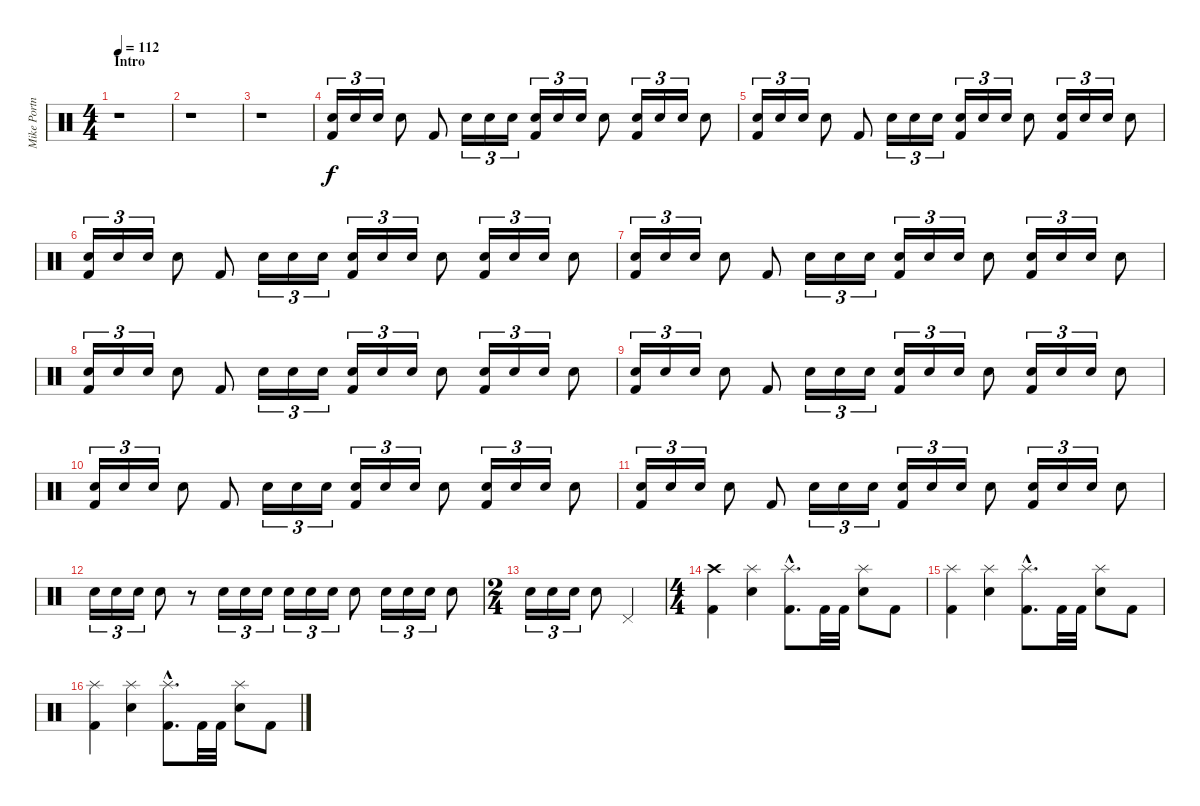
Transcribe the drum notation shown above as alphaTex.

\track ("Mike Portnoy" "Mike Portn") {instrument percussion}
\staff {score}
\articulation defaults
\ts (4 4)
\section ("" "Intro")
\tempo 112
\clef neutral
\ks c
r.1{dy f} |
r.1 |
r.1 |
("Kick (hit) 2" "Electric Snare (hit)").16{tu (3 2)} "Electric Snare (hit)".16{tu (3 2)} "Electric Snare (hit)".16{tu (3 2)} "Electric Snare (hit)".8 "Kick (hit) 2".8 "Electric Snare (hit)".16{tu (3 2)} "Electric Snare (hit)".16{tu (3 2)} "Electric Snare (hit)".16{tu (3 2)} ("Kick (hit) 2" "Electric Snare (hit)").16{tu (3 2)} "Electric Snare (hit)".16{tu (3 2)} "Electric Snare (hit)".16{tu (3 2)} "Electric Snare (hit)".8 ("Kick (hit) 2" "Electric Snare (hit)").16{tu (3 2)} "Electric Snare (hit)".16{tu (3 2)} "Electric Snare (hit)".16{tu (3 2)} "Electric Snare (hit)".8 |
("Kick (hit) 2" "Electric Snare (hit)").16{tu (3 2)} "Electric Snare (hit)".16{tu (3 2)} "Electric Snare (hit)".16{tu (3 2)} "Electric Snare (hit)".8 "Kick (hit) 2".8 "Electric Snare (hit)".16{tu (3 2)} "Electric Snare (hit)".16{tu (3 2)} "Electric Snare (hit)".16{tu (3 2)} ("Kick (hit) 2" "Electric Snare (hit)").16{tu (3 2)} "Electric Snare (hit)".16{tu (3 2)} "Electric Snare (hit)".16{tu (3 2)} "Electric Snare (hit)".8 ("Kick (hit) 2" "Electric Snare (hit)").16{tu (3 2)} "Electric Snare (hit)".16{tu (3 2)} "Electric Snare (hit)".16{tu (3 2)} "Electric Snare (hit)".8 |
("Kick (hit) 2" "Electric Snare (hit)").16{tu (3 2)} "Electric Snare (hit)".16{tu (3 2)} "Electric Snare (hit)".16{tu (3 2)} "Electric Snare (hit)".8 "Kick (hit) 2".8 "Electric Snare (hit)".16{tu (3 2)} "Electric Snare (hit)".16{tu (3 2)} "Electric Snare (hit)".16{tu (3 2)} ("Kick (hit) 2" "Electric Snare (hit)").16{tu (3 2)} "Electric Snare (hit)".16{tu (3 2)} "Electric Snare (hit)".16{tu (3 2)} "Electric Snare (hit)".8 ("Kick (hit) 2" "Electric Snare (hit)").16{tu (3 2)} "Electric Snare (hit)".16{tu (3 2)} "Electric Snare (hit)".16{tu (3 2)} "Electric Snare (hit)".8 |
("Kick (hit) 2" "Electric Snare (hit)").16{tu (3 2)} "Electric Snare (hit)".16{tu (3 2)} "Electric Snare (hit)".16{tu (3 2)} "Electric Snare (hit)".8 "Kick (hit) 2".8 "Electric Snare (hit)".16{tu (3 2)} "Electric Snare (hit)".16{tu (3 2)} "Electric Snare (hit)".16{tu (3 2)} ("Kick (hit) 2" "Electric Snare (hit)").16{tu (3 2)} "Electric Snare (hit)".16{tu (3 2)} "Electric Snare (hit)".16{tu (3 2)} "Electric Snare (hit)".8 ("Kick (hit) 2" "Electric Snare (hit)").16{tu (3 2)} "Electric Snare (hit)".16{tu (3 2)} "Electric Snare (hit)".16{tu (3 2)} "Electric Snare (hit)".8 |
("Kick (hit) 2" "Electric Snare (hit)").16{tu (3 2)} "Electric Snare (hit)".16{tu (3 2)} "Electric Snare (hit)".16{tu (3 2)} "Electric Snare (hit)".8 "Kick (hit) 2".8 "Electric Snare (hit)".16{tu (3 2)} "Electric Snare (hit)".16{tu (3 2)} "Electric Snare (hit)".16{tu (3 2)} ("Kick (hit) 2" "Electric Snare (hit)").16{tu (3 2)} "Electric Snare (hit)".16{tu (3 2)} "Electric Snare (hit)".16{tu (3 2)} "Electric Snare (hit)".8 ("Kick (hit) 2" "Electric Snare (hit)").16{tu (3 2)} "Electric Snare (hit)".16{tu (3 2)} "Electric Snare (hit)".16{tu (3 2)} "Electric Snare (hit)".8 |
("Kick (hit) 2" "Electric Snare (hit)").16{tu (3 2)} "Electric Snare (hit)".16{tu (3 2)} "Electric Snare (hit)".16{tu (3 2)} "Electric Snare (hit)".8 "Kick (hit) 2".8 "Electric Snare (hit)".16{tu (3 2)} "Electric Snare (hit)".16{tu (3 2)} "Electric Snare (hit)".16{tu (3 2)} ("Kick (hit) 2" "Electric Snare (hit)").16{tu (3 2)} "Electric Snare (hit)".16{tu (3 2)} "Electric Snare (hit)".16{tu (3 2)} "Electric Snare (hit)".8 ("Kick (hit) 2" "Electric Snare (hit)").16{tu (3 2)} "Electric Snare (hit)".16{tu (3 2)} "Electric Snare (hit)".16{tu (3 2)} "Electric Snare (hit)".8 |
("Kick (hit) 2" "Electric Snare (hit)").16{tu (3 2)} "Electric Snare (hit)".16{tu (3 2)} "Electric Snare (hit)".16{tu (3 2)} "Electric Snare (hit)".8 "Kick (hit) 2".8 "Electric Snare (hit)".16{tu (3 2)} "Electric Snare (hit)".16{tu (3 2)} "Electric Snare (hit)".16{tu (3 2)} ("Kick (hit) 2" "Electric Snare (hit)").16{tu (3 2)} "Electric Snare (hit)".16{tu (3 2)} "Electric Snare (hit)".16{tu (3 2)} "Electric Snare (hit)".8 ("Kick (hit) 2" "Electric Snare (hit)").16{tu (3 2)} "Electric Snare (hit)".16{tu (3 2)} "Electric Snare (hit)".16{tu (3 2)} "Electric Snare (hit)".8 |
("Kick (hit) 2" "Electric Snare (hit)").16{tu (3 2)} "Electric Snare (hit)".16{tu (3 2)} "Electric Snare (hit)".16{tu (3 2)} "Electric Snare (hit)".8 "Kick (hit) 2".8 "Electric Snare (hit)".16{tu (3 2)} "Electric Snare (hit)".16{tu (3 2)} "Electric Snare (hit)".16{tu (3 2)} ("Kick (hit) 2" "Electric Snare (hit)").16{tu (3 2)} "Electric Snare (hit)".16{tu (3 2)} "Electric Snare (hit)".16{tu (3 2)} "Electric Snare (hit)".8 ("Kick (hit) 2" "Electric Snare (hit)").16{tu (3 2)} "Electric Snare (hit)".16{tu (3 2)} "Electric Snare (hit)".16{tu (3 2)} "Electric Snare (hit)".8 |
"Electric Snare (hit)".16{tu (3 2)} "Electric Snare (hit)".16{tu (3 2)} "Electric Snare (hit)".16{tu (3 2)} "Electric Snare (hit)".8 r.8 "Electric Snare (hit)".16{tu (3 2)} "Electric Snare (hit)".16{tu (3 2)} "Electric Snare (hit)".16{tu (3 2)} "Electric Snare (hit)".16{tu (3 2)} "Electric Snare (hit)".16{tu (3 2)} "Electric Snare (hit)".16{tu (3 2)} "Electric Snare (hit)".8 "Electric Snare (hit)".16{tu (3 2)} "Electric Snare (hit)".16{tu (3 2)} "Electric Snare (hit)".16{tu (3 2)} "Electric Snare (hit)".8 |
\ts (2 4)
"Electric Snare (hit)".16{tu (3 2)} "Electric Snare (hit)".16{tu (3 2)} "Electric Snare (hit)".16{tu (3 2)} "Electric Snare (hit)".8 "Pedal Hi-Hat (hit)".4 |
\ts (4 4)
("Kick (hit) 2" "Crash high (hit)").4 ("Electric Snare (hit)" "Splash (hit)").4 ("Kick (hit) 2"{hac} "Splash (hit)"{hac}).8{d} "Kick (hit) 2".32 "Kick (hit) 2".32 ("Electric Snare (hit)" "Splash (hit)").8 "Kick (hit) 2".8 |
("Kick (hit) 2" "Splash (hit)").4 ("Electric Snare (hit)" "Splash (hit)").4 ("Kick (hit) 2"{hac} "Splash (hit)"{hac}).8{d} "Kick (hit) 2".32 "Kick (hit) 2".32 ("Electric Snare (hit)" "Splash (hit)").8 "Kick (hit) 2".8 |
("Kick (hit) 2" "Splash (hit)").4 ("Electric Snare (hit)" "Splash (hit)").4 ("Kick (hit) 2"{hac} "Splash (hit)"{hac}).8{d} "Kick (hit) 2".32 "Kick (hit) 2".32 ("Electric Snare (hit)" "Splash (hit)").8 "Kick (hit) 2".8
